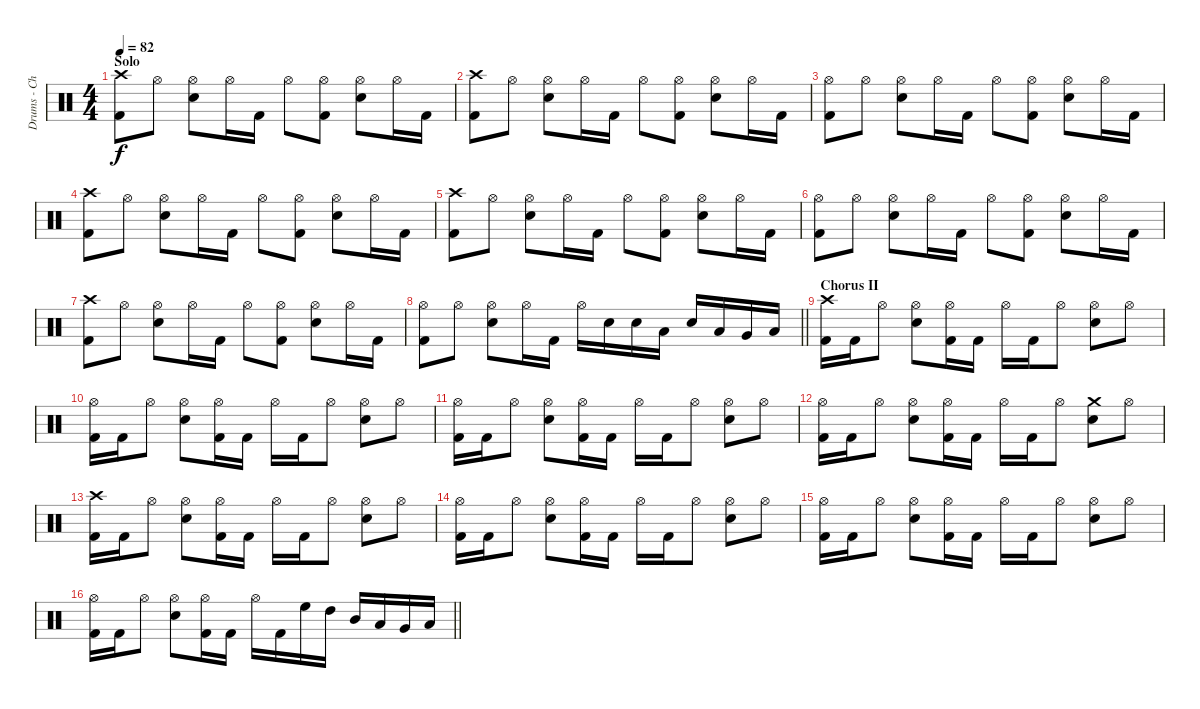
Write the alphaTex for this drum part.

\track ("Drums - Christoph Schneider" "Drums - Ch") {instrument percussion}
\staff {score}
\articulation defaults
\ts (4 4)
\section ("" "Solo")
\tempo 82
\clef neutral
\ks c
("Crash high (hit)" "Kick (hit) 2").8{dy f} "Hi-Hat (open)".8 ("Hi-Hat (open)" "Snare (hit) 2").8 "Hi-Hat (open)".16 "Kick (hit) 2".16 "Hi-Hat (open)".8 ("Hi-Hat (open)" "Kick (hit) 2").8 ("Hi-Hat (open)" "Snare (hit) 2").8 "Hi-Hat (open)".16 "Kick (hit) 2".16 |
("Crash high (hit)" "Kick (hit) 2").8 "Hi-Hat (open)".8 ("Hi-Hat (open)" "Snare (hit) 2").8 "Hi-Hat (open)".16 "Kick (hit) 2".16 "Hi-Hat (open)".8 ("Hi-Hat (open)" "Kick (hit) 2").8 ("Hi-Hat (open)" "Snare (hit) 2").8 "Hi-Hat (open)".16 "Kick (hit) 2".16 |
("Hi-Hat (open)" "Kick (hit) 2").8 "Hi-Hat (open)".8 ("Hi-Hat (open)" "Snare (hit) 2").8 "Hi-Hat (open)".16 "Kick (hit) 2".16 "Hi-Hat (open)".8 ("Hi-Hat (open)" "Kick (hit) 2").8 ("Hi-Hat (open)" "Snare (hit) 2").8 "Hi-Hat (open)".16 "Kick (hit) 2".16 |
("Crash high (hit)" "Kick (hit) 2").8 "Hi-Hat (open)".8 ("Hi-Hat (open)" "Snare (hit) 2").8 "Hi-Hat (open)".16 "Kick (hit) 2".16 "Hi-Hat (open)".8 ("Hi-Hat (open)" "Kick (hit) 2").8 ("Hi-Hat (open)" "Snare (hit) 2").8 "Hi-Hat (open)".16 "Kick (hit) 2".16 |
("Crash high (hit)" "Kick (hit) 2").8 "Hi-Hat (open)".8 ("Hi-Hat (open)" "Snare (hit) 2").8 "Hi-Hat (open)".16 "Kick (hit) 2".16 "Hi-Hat (open)".8 ("Hi-Hat (open)" "Kick (hit) 2").8 ("Hi-Hat (open)" "Snare (hit) 2").8 "Hi-Hat (open)".16 "Kick (hit) 2".16 |
("Hi-Hat (open)" "Kick (hit) 2").8 "Hi-Hat (open)".8 ("Hi-Hat (open)" "Snare (hit) 2").8 "Hi-Hat (open)".16 "Kick (hit) 2".16 "Hi-Hat (open)".8 ("Hi-Hat (open)" "Kick (hit) 2").8 ("Hi-Hat (open)" "Snare (hit) 2").8 "Hi-Hat (open)".16 "Kick (hit) 2".16 |
("Crash high (hit)" "Kick (hit) 2").8 "Hi-Hat (open)".8 ("Hi-Hat (open)" "Snare (hit) 2").8 "Hi-Hat (open)".16 "Kick (hit) 2".16 "Hi-Hat (open)".8 ("Hi-Hat (open)" "Kick (hit) 2").8 ("Hi-Hat (open)" "Snare (hit) 2").8 "Hi-Hat (open)".16 "Kick (hit) 2".16 |
\barLineRight lightlight
("Hi-Hat (open)" "Kick (hit) 2").8 "Hi-Hat (open)".8 ("Hi-Hat (open)" "Snare (hit) 2").8 "Hi-Hat (open)".16 "Kick (hit) 2".16 "Hi-Hat (open)".16 "Snare (hit) 2".16 "Snare (hit) 2".16 "Low Tom (hit)".16 "Snare (hit) 2".16 "Low Tom (hit)".16 "Very Low Tom (hit)".16 "Low Floor Tom (hit)".16 |
\section ("" "Chorus II")
("Crash high (hit)" "Kick (hit) 2").16 "Kick (hit) 2".16 "Hi-Hat (open)".8 ("Hi-Hat (open)" "Snare (hit) 2").8 ("Hi-Hat (open)" "Kick (hit) 2").16 "Kick (hit) 2".16 "Hi-Hat (open)".16 "Kick (hit) 2".16 "Hi-Hat (open)".8 ("Hi-Hat (open)" "Snare (hit) 2").8 "Hi-Hat (open)".8 |
("Hi-Hat (open)" "Kick (hit) 2").16 "Kick (hit) 2".16 "Hi-Hat (open)".8 ("Hi-Hat (open)" "Snare (hit) 2").8 ("Hi-Hat (open)" "Kick (hit) 2").16 "Kick (hit) 2".16 "Hi-Hat (open)".16 "Kick (hit) 2".16 "Hi-Hat (open)".8 ("Hi-Hat (open)" "Snare (hit) 2").8 "Hi-Hat (open)".8 |
("Hi-Hat (open)" "Kick (hit) 2").16 "Kick (hit) 2".16 "Hi-Hat (open)".8 ("Hi-Hat (open)" "Snare (hit) 2").8 ("Hi-Hat (open)" "Kick (hit) 2").16 "Kick (hit) 2".16 "Hi-Hat (open)".16 "Kick (hit) 2".16 "Hi-Hat (open)".8 ("Hi-Hat (open)" "Snare (hit) 2").8 "Hi-Hat (open)".8 |
("Hi-Hat (open)" "Kick (hit) 2").16 "Kick (hit) 2".16 "Hi-Hat (open)".8 ("Hi-Hat (open)" "Snare (hit) 2").8 ("Hi-Hat (open)" "Kick (hit) 2").16 "Kick (hit) 2".16 "Hi-Hat (open)".16 "Kick (hit) 2".16 "Hi-Hat (open)".8 ("Crash medium (hit)" "Snare (hit) 2").8 "Hi-Hat (open)".8 |
("Crash high (hit)" "Kick (hit) 2").16 "Kick (hit) 2".16 "Hi-Hat (open)".8 ("Hi-Hat (open)" "Snare (hit) 2").8 ("Hi-Hat (open)" "Kick (hit) 2").16 "Kick (hit) 2".16 "Hi-Hat (open)".16 "Kick (hit) 2".16 "Hi-Hat (open)".8 ("Hi-Hat (open)" "Snare (hit) 2").8 "Hi-Hat (open)".8 |
("Hi-Hat (open)" "Kick (hit) 2").16 "Kick (hit) 2".16 "Hi-Hat (open)".8 ("Hi-Hat (open)" "Snare (hit) 2").8 ("Hi-Hat (open)" "Kick (hit) 2").16 "Kick (hit) 2".16 "Hi-Hat (open)".16 "Kick (hit) 2".16 "Hi-Hat (open)".8 ("Hi-Hat (open)" "Snare (hit) 2").8 "Hi-Hat (open)".8 |
("Hi-Hat (open)" "Kick (hit) 2").16 "Kick (hit) 2".16 "Hi-Hat (open)".8 ("Hi-Hat (open)" "Snare (hit) 2").8 ("Hi-Hat (open)" "Kick (hit) 2").16 "Kick (hit) 2".16 "Hi-Hat (open)".16 "Kick (hit) 2".16 "Hi-Hat (open)".8 ("Hi-Hat (open)" "Snare (hit) 2").8 "Hi-Hat (open)".8 |
\barLineRight lightlight
("Hi-Hat (open)" "Kick (hit) 2").16 "Kick (hit) 2".16 "Hi-Hat (open)".8 ("Hi-Hat (open)" "Snare (hit) 2").8 ("Hi-Hat (open)" "Kick (hit) 2").16 "Kick (hit) 2".16 "Hi-Hat (open)".16 "Kick (hit) 2".16 "High Floor Tom (hit)".16 "High Tom (hit)".16 "Mid Tom (hit)".16 "Low Tom (hit)".16 "Very Low Tom (hit)".16 "Low Floor Tom (hit)".16
